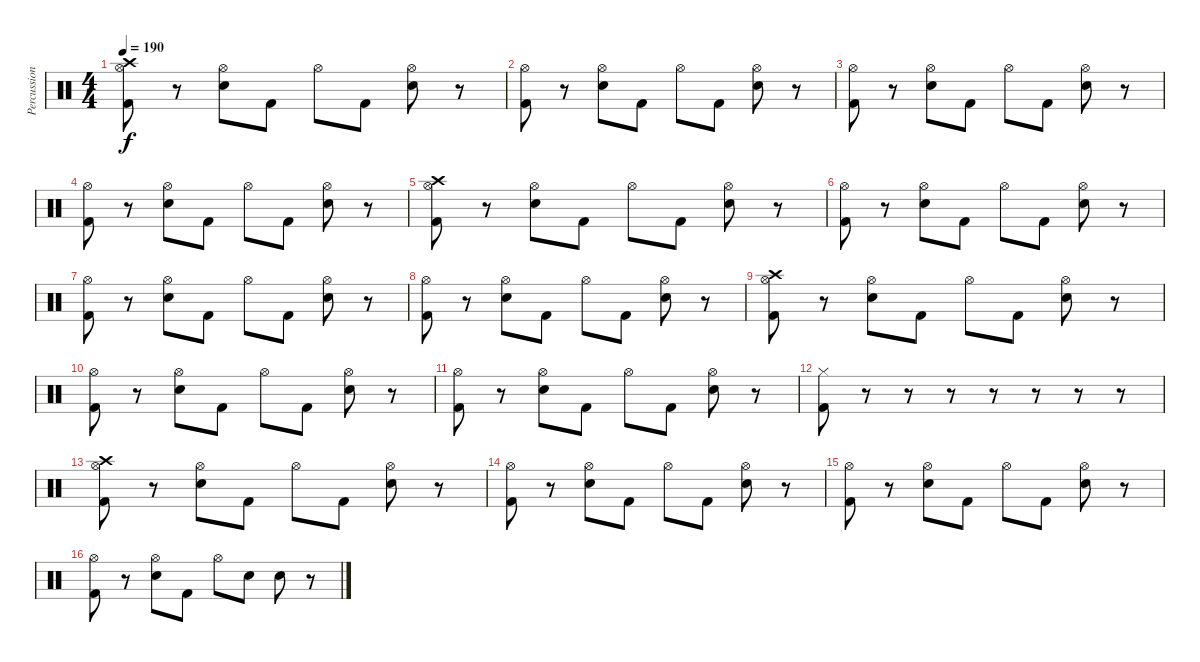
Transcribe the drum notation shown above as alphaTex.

\track ("Percussioni" "Percussion") {instrument percussion}
\staff {score}
\articulation defaults
\ts (4 4)
\tempo 190
\clef neutral
\ks c
("Hi-Hat (open)" "Crash high (hit)" "Kick (hit) 2").8{dy f} r.8 ("Hi-Hat (open)" "Snare (hit) 2").8 "Kick (hit) 2".8 "Hi-Hat (open)".8 "Kick (hit) 2".8 ("Hi-Hat (open)" "Snare (hit) 2").8 r.8 |
("Hi-Hat (open)" "Kick (hit) 2").8 r.8 ("Hi-Hat (open)" "Snare (hit) 2").8 "Kick (hit) 2".8 "Hi-Hat (open)".8 "Kick (hit) 2".8 ("Hi-Hat (open)" "Snare (hit) 2").8 r.8 |
("Hi-Hat (open)" "Kick (hit) 2").8 r.8 ("Hi-Hat (open)" "Snare (hit) 2").8 "Kick (hit) 2".8 "Hi-Hat (open)".8 "Kick (hit) 2".8 ("Hi-Hat (open)" "Snare (hit) 2").8 r.8 |
("Hi-Hat (open)" "Kick (hit) 2").8 r.8 ("Hi-Hat (open)" "Snare (hit) 2").8 "Kick (hit) 2".8 "Hi-Hat (open)".8 "Kick (hit) 2".8 ("Hi-Hat (open)" "Snare (hit) 2").8 r.8 |
("Hi-Hat (open)" "Crash high (hit)" "Kick (hit) 2").8 r.8 ("Hi-Hat (open)" "Snare (hit) 2").8 "Kick (hit) 2".8 "Hi-Hat (open)".8 "Kick (hit) 2".8 ("Hi-Hat (open)" "Snare (hit) 2").8 r.8 |
("Hi-Hat (open)" "Kick (hit) 2").8 r.8 ("Hi-Hat (open)" "Snare (hit) 2").8 "Kick (hit) 2".8 "Hi-Hat (open)".8 "Kick (hit) 2".8 ("Hi-Hat (open)" "Snare (hit) 2").8 r.8 |
("Hi-Hat (open)" "Kick (hit) 2").8 r.8 ("Hi-Hat (open)" "Snare (hit) 2").8 "Kick (hit) 2".8 "Hi-Hat (open)".8 "Kick (hit) 2".8 ("Hi-Hat (open)" "Snare (hit) 2").8 r.8 |
("Hi-Hat (open)" "Kick (hit) 2").8 r.8 ("Hi-Hat (open)" "Snare (hit) 2").8 "Kick (hit) 2".8 "Hi-Hat (open)".8 "Kick (hit) 2".8 ("Hi-Hat (open)" "Snare (hit) 2").8 r.8 |
("Hi-Hat (open)" "Crash high (hit)" "Kick (hit) 2").8 r.8 ("Hi-Hat (open)" "Snare (hit) 2").8 "Kick (hit) 2".8 "Hi-Hat (open)".8 "Kick (hit) 2".8 ("Hi-Hat (open)" "Snare (hit) 2").8 r.8 |
("Hi-Hat (open)" "Kick (hit) 2").8 r.8 ("Hi-Hat (open)" "Snare (hit) 2").8 "Kick (hit) 2".8 "Hi-Hat (open)".8 "Kick (hit) 2".8 ("Hi-Hat (open)" "Snare (hit) 2").8 r.8 |
("Hi-Hat (open)" "Kick (hit) 2").8 r.8 ("Hi-Hat (open)" "Snare (hit) 2").8 "Kick (hit) 2".8 "Hi-Hat (open)".8 "Kick (hit) 2".8 ("Hi-Hat (open)" "Snare (hit) 2").8 r.8 |
("Hi-Hat (closed)" "Kick (hit) 2").8 r.8 r.8 r.8 r.8 r.8 r.8 r.8 |
("Hi-Hat (open)" "Crash high (hit)" "Kick (hit) 2").8 r.8 ("Hi-Hat (open)" "Snare (hit) 2").8 "Kick (hit) 2".8 "Hi-Hat (open)".8 "Kick (hit) 2".8 ("Hi-Hat (open)" "Snare (hit) 2").8 r.8 |
("Hi-Hat (open)" "Kick (hit) 2").8 r.8 ("Hi-Hat (open)" "Snare (hit) 2").8 "Kick (hit) 2".8 "Hi-Hat (open)".8 "Kick (hit) 2".8 ("Hi-Hat (open)" "Snare (hit) 2").8 r.8 |
("Hi-Hat (open)" "Kick (hit) 2").8 r.8 ("Hi-Hat (open)" "Snare (hit) 2").8 "Kick (hit) 2".8 "Hi-Hat (open)".8 "Kick (hit) 2".8 ("Hi-Hat (open)" "Snare (hit) 2").8 r.8 |
("Hi-Hat (open)" "Kick (hit) 2").8 r.8 ("Hi-Hat (open)" "Snare (hit) 2").8 "Kick (hit) 2".8 "Hi-Hat (open)".8 "Snare (hit) 2".8 "Snare (hit) 2".8 r.8
